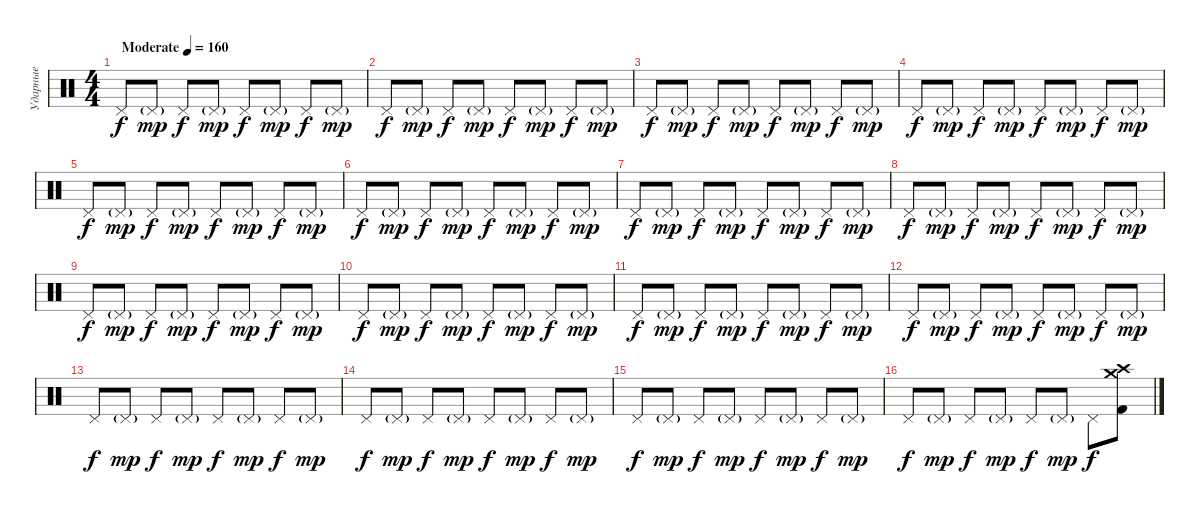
\track ("Ударные" "Ударные") {instrument percussion}
\staff {score}
\articulation defaults
\ts (4 4)
\tempo (160 "Moderate")
\clef neutral
\ks c "Pedal Hi-Hat (hit)".8{dy f} "Pedal Hi-Hat (hit)"{g}.8{dy mp} "Pedal Hi-Hat (hit)".8{dy f} "Pedal Hi-Hat (hit)"{g}.8{dy mp} "Pedal Hi-Hat (hit)".8{dy f} "Pedal Hi-Hat (hit)"{g}.8{dy mp} "Pedal Hi-Hat (hit)".8{dy f} "Pedal Hi-Hat (hit)"{g}.8{dy mp}
|
"Pedal Hi-Hat (hit)".8{dy f} "Pedal Hi-Hat (hit)"{g}.8{dy mp} "Pedal Hi-Hat (hit)".8{dy f} "Pedal Hi-Hat (hit)"{g}.8{dy mp} "Pedal Hi-Hat (hit)".8{dy f} "Pedal Hi-Hat (hit)"{g}.8{dy mp} "Pedal Hi-Hat (hit)".8{dy f} "Pedal Hi-Hat (hit)"{g}.8{dy mp} |
"Pedal Hi-Hat (hit)".8{dy f} "Pedal Hi-Hat (hit)"{g}.8{dy mp} "Pedal Hi-Hat (hit)".8{dy f} "Pedal Hi-Hat (hit)"{g}.8{dy mp} "Pedal Hi-Hat (hit)".8{dy f} "Pedal Hi-Hat (hit)"{g}.8{dy mp} "Pedal Hi-Hat (hit)".8{dy f} "Pedal Hi-Hat (hit)"{g}.8{dy mp} |
"Pedal Hi-Hat (hit)".8{dy f} "Pedal Hi-Hat (hit)"{g}.8{dy mp} "Pedal Hi-Hat (hit)".8{dy f} "Pedal Hi-Hat (hit)"{g}.8{dy mp} "Pedal Hi-Hat (hit)".8{dy f} "Pedal Hi-Hat (hit)"{g}.8{dy mp} "Pedal Hi-Hat (hit)".8{dy f} "Pedal Hi-Hat (hit)"{g}.8{dy mp} |
"Pedal Hi-Hat (hit)".8{dy f} "Pedal Hi-Hat (hit)"{g}.8{dy mp} "Pedal Hi-Hat (hit)".8{dy f} "Pedal Hi-Hat (hit)"{g}.8{dy mp} "Pedal Hi-Hat (hit)".8{dy f} "Pedal Hi-Hat (hit)"{g}.8{dy mp} "Pedal Hi-Hat (hit)".8{dy f} "Pedal Hi-Hat (hit)"{g}.8{dy mp} |
"Pedal Hi-Hat (hit)".8{dy f} "Pedal Hi-Hat (hit)"{g}.8{dy mp} "Pedal Hi-Hat (hit)".8{dy f} "Pedal Hi-Hat (hit)"{g}.8{dy mp} "Pedal Hi-Hat (hit)".8{dy f} "Pedal Hi-Hat (hit)"{g}.8{dy mp} "Pedal Hi-Hat (hit)".8{dy f} "Pedal Hi-Hat (hit)"{g}.8{dy mp} |
"Pedal Hi-Hat (hit)".8{dy f} "Pedal Hi-Hat (hit)"{g}.8{dy mp} "Pedal Hi-Hat (hit)".8{dy f} "Pedal Hi-Hat (hit)"{g}.8{dy mp} "Pedal Hi-Hat (hit)".8{dy f} "Pedal Hi-Hat (hit)"{g}.8{dy mp} "Pedal Hi-Hat (hit)".8{dy f} "Pedal Hi-Hat (hit)"{g}.8{dy mp} |
"Pedal Hi-Hat (hit)".8{dy f} "Pedal Hi-Hat (hit)"{g}.8{dy mp} "Pedal Hi-Hat (hit)".8{dy f} "Pedal Hi-Hat (hit)"{g}.8{dy mp} "Pedal Hi-Hat (hit)".8{dy f} "Pedal Hi-Hat (hit)"{g}.8{dy mp} "Pedal Hi-Hat (hit)".8{dy f} "Pedal Hi-Hat (hit)"{g}.8{dy mp} |
"Pedal Hi-Hat (hit)".8{dy f} "Pedal Hi-Hat (hit)"{g}.8{dy mp} "Pedal Hi-Hat (hit)".8{dy f} "Pedal Hi-Hat (hit)"{g}.8{dy mp} "Pedal Hi-Hat (hit)".8{dy f} "Pedal Hi-Hat (hit)"{g}.8{dy mp} "Pedal Hi-Hat (hit)".8{dy f} "Pedal Hi-Hat (hit)"{g}.8{dy mp} |
"Pedal Hi-Hat (hit)".8{dy f} "Pedal Hi-Hat (hit)"{g}.8{dy mp} "Pedal Hi-Hat (hit)".8{dy f} "Pedal Hi-Hat (hit)"{g}.8{dy mp} "Pedal Hi-Hat (hit)".8{dy f} "Pedal Hi-Hat (hit)"{g}.8{dy mp} "Pedal Hi-Hat (hit)".8{dy f} "Pedal Hi-Hat (hit)"{g}.8{dy mp} |
"Pedal Hi-Hat (hit)".8{dy f} "Pedal Hi-Hat (hit)"{g}.8{dy mp} "Pedal Hi-Hat (hit)".8{dy f} "Pedal Hi-Hat (hit)"{g}.8{dy mp} "Pedal Hi-Hat (hit)".8{dy f} "Pedal Hi-Hat (hit)"{g}.8{dy mp} "Pedal Hi-Hat (hit)".8{dy f} "Pedal Hi-Hat (hit)"{g}.8{dy mp} |
"Pedal Hi-Hat (hit)".8{dy f} "Pedal Hi-Hat (hit)"{g}.8{dy mp} "Pedal Hi-Hat (hit)".8{dy f} "Pedal Hi-Hat (hit)"{g}.8{dy mp} "Pedal Hi-Hat (hit)".8{dy f} "Pedal Hi-Hat (hit)"{g}.8{dy mp} "Pedal Hi-Hat (hit)".8{dy f} "Pedal Hi-Hat (hit)"{g}.8{dy mp} |
"Pedal Hi-Hat (hit)".8{dy f} "Pedal Hi-Hat (hit)"{g}.8{dy mp} "Pedal Hi-Hat (hit)".8{dy f} "Pedal Hi-Hat (hit)"{g}.8{dy mp} "Pedal Hi-Hat (hit)".8{dy f} "Pedal Hi-Hat (hit)"{g}.8{dy mp} "Pedal Hi-Hat (hit)".8{dy f} "Pedal Hi-Hat (hit)"{g}.8{dy mp} |
"Pedal Hi-Hat (hit)".8{dy f} "Pedal Hi-Hat (hit)"{g}.8{dy mp} "Pedal Hi-Hat (hit)".8{dy f} "Pedal Hi-Hat (hit)"{g}.8{dy mp} "Pedal Hi-Hat (hit)".8{dy f} "Pedal Hi-Hat (hit)"{g}.8{dy mp} "Pedal Hi-Hat (hit)".8{dy f} "Pedal Hi-Hat (hit)"{g}.8{dy mp} |
"Pedal Hi-Hat (hit)".8{dy f} "Pedal Hi-Hat (hit)"{g}.8{dy mp} "Pedal Hi-Hat (hit)".8{dy f} "Pedal Hi-Hat (hit)"{g}.8{dy mp} "Pedal Hi-Hat (hit)".8{dy f} "Pedal Hi-Hat (hit)"{g}.8{dy mp} "Pedal Hi-Hat (hit)".8{dy f} "Pedal Hi-Hat (hit)"{g}.8{dy mp} |
"Pedal Hi-Hat (hit)".8{dy f} "Pedal Hi-Hat (hit)"{g}.8{dy mp} "Pedal Hi-Hat (hit)".8{dy f} "Pedal Hi-Hat (hit)"{g}.8{dy mp} "Pedal Hi-Hat (hit)".8{dy f} "Pedal Hi-Hat (hit)"{g}.8{dy mp} "Pedal Hi-Hat (hit)".8{dy f} ("Crash medium (hit)" "Crash high (hit)" "Kick (hit) 2").8
